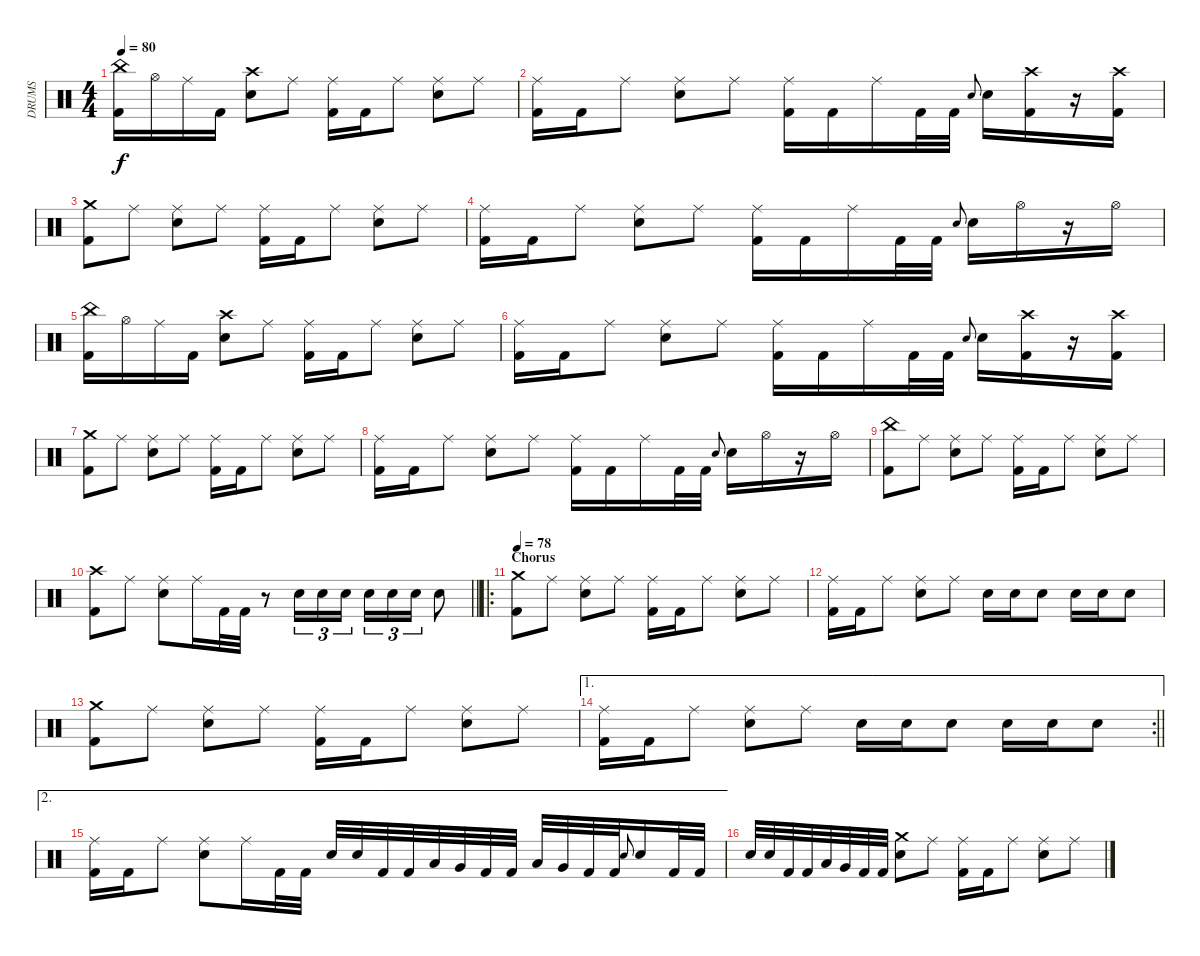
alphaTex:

\track ("DRUMS" "DRUMS") {instrument percussion}
\staff {score}
\articulation defaults
\ts (4 4)
\tempo 80
\clef neutral
\ks c
("China (hit)" "Kick (hit) 2").16{dy f} "Hi-Hat (open)".16 "Ride (middle)".16 "Kick (hit) 2".16 ("Crash high (hit)" "Snare (hit) 2").8 "Ride (middle)".8 ("Ride (middle)" "Kick (hit) 2").16 "Kick (hit) 2".16 "Ride (middle)".8 ("Ride (middle)" "Snare (hit) 2").8 "Ride (middle)".8 |
("Ride (middle)" "Kick (hit) 2").16 "Kick (hit) 2".16 "Ride (middle)".8 ("Ride (middle)" "Snare (hit) 2").8 "Ride (middle)".8 ("Ride (middle)" "Kick (hit) 2").16 "Kick (hit) 2".16 "Ride (middle)".16 "Kick (hit) 2".32 "Kick (hit) 2".32 "Snare (hit) 2".8{gr onbeat} "Snare (hit) 2".16 ("Crash high (hit)" "Kick (hit) 2").16 r.16 ("Crash high (hit)" "Kick (hit) 2").16 |
("Crash medium (hit)" "Kick (hit) 2").8 "Ride (middle)".8 ("Ride (middle)" "Snare (hit) 2").8 "Ride (middle)".8 ("Ride (middle)" "Kick (hit) 2").16 "Kick (hit) 2".16 "Ride (middle)".8 ("Ride (middle)" "Snare (hit) 2").8 "Ride (middle)".8 |
("Ride (middle)" "Kick (hit) 2").16 "Kick (hit) 2".16 "Ride (middle)".8 ("Ride (middle)" "Snare (hit) 2").8 "Ride (middle)".8 ("Ride (middle)" "Kick (hit) 2").16 "Kick (hit) 2".16 "Ride (middle)".16 "Kick (hit) 2".32 "Kick (hit) 2".32 "Snare (hit) 2".8{gr onbeat} "Snare (hit) 2".16 "Hi-Hat (open)".16 r.16 "Hi-Hat (open)".16 |
("China (hit)" "Kick (hit) 2").16 "Hi-Hat (open)".16 "Ride (middle)".16 "Kick (hit) 2".16 ("Crash high (hit)" "Snare (hit) 2").8 "Ride (middle)".8 ("Ride (middle)" "Kick (hit) 2").16 "Kick (hit) 2".16 "Ride (middle)".8 ("Ride (middle)" "Snare (hit) 2").8 "Ride (middle)".8 |
("Ride (middle)" "Kick (hit) 2").16 "Kick (hit) 2".16 "Ride (middle)".8 ("Ride (middle)" "Snare (hit) 2").8 "Ride (middle)".8 ("Ride (middle)" "Kick (hit) 2").16 "Kick (hit) 2".16 "Ride (middle)".16 "Kick (hit) 2".32 "Kick (hit) 2".32 "Snare (hit) 2".8{gr onbeat} "Snare (hit) 2".16 ("Crash high (hit)" "Kick (hit) 2").16 r.16 ("Crash high (hit)" "Kick (hit) 2").16 |
("Crash medium (hit)" "Kick (hit) 2").8 "Ride (middle)".8 ("Ride (middle)" "Snare (hit) 2").8 "Ride (middle)".8 ("Ride (middle)" "Kick (hit) 2").16 "Kick (hit) 2".16 "Ride (middle)".8 ("Ride (middle)" "Snare (hit) 2").8 "Ride (middle)".8 |
("Ride (middle)" "Kick (hit) 2").16 "Kick (hit) 2".16 "Ride (middle)".8 ("Ride (middle)" "Snare (hit) 2").8 "Ride (middle)".8 ("Ride (middle)" "Kick (hit) 2").16 "Kick (hit) 2".16 "Ride (middle)".16 "Kick (hit) 2".32 "Kick (hit) 2".32 "Snare (hit) 2".8{gr onbeat} "Snare (hit) 2".16 "Hi-Hat (open)".16 r.16 "Hi-Hat (open)".16 |
("China (hit)" "Kick (hit) 2").8 "Ride (middle)".8 ("Ride (middle)" "Snare (hit) 2").8 "Ride (middle)".8 ("Ride (middle)" "Kick (hit) 2").16 "Kick (hit) 2".16 "Ride (middle)".8 ("Ride (middle)" "Snare (hit) 2").8 "Ride (middle)".8 |
\barLineRight lightlight
("Crash high (hit)" "Kick (hit) 2").8 "Ride (middle)".8 ("Ride (middle)" "Snare (hit) 2").8 "Ride (middle)".16 "Kick (hit) 2".32 "Kick (hit) 2".32 r.8 "Snare (hit) 2".16{tu (3 2)} "Snare (hit) 2".16{tu (3 2)} "Snare (hit) 2".16{tu (3 2)} "Snare (hit) 2".16{tu (3 2)} "Snare (hit) 2".16{tu (3 2)} "Snare (hit) 2".16{tu (3 2)} "Snare (hit) 2".8 |
\ro
\section ("" "Chorus")
\tempo 78
("Crash medium (hit)" "Kick (hit) 2").8 "Ride (middle)".8 ("Ride (middle)" "Snare (hit) 2").8 "Ride (middle)".8 ("Ride (middle)" "Kick (hit) 2").16 "Kick (hit) 2".16 "Ride (middle)".8 ("Ride (middle)" "Snare (hit) 2").8 "Ride (middle)".8 |
("Ride (middle)" "Kick (hit) 2").16 "Kick (hit) 2".16 "Ride (middle)".8 ("Ride (middle)" "Snare (hit) 2").8 "Ride (middle)".8 "Snare (hit) 2".16 "Snare (hit) 2".16 "Snare (hit) 2".8 "Snare (hit) 2".16 "Snare (hit) 2".16 "Snare (hit) 2".8 |
("Crash medium (hit)" "Kick (hit) 2").8 "Ride (middle)".8 ("Ride (middle)" "Snare (hit) 2").8 "Ride (middle)".8 ("Ride (middle)" "Kick (hit) 2").16 "Kick (hit) 2".16 "Ride (middle)".8 ("Ride (middle)" "Snare (hit) 2").8 "Ride (middle)".8 |
\ae 1
\rc 2
\barLineRight lightlight
("Ride (middle)" "Kick (hit) 2").16 "Kick (hit) 2".16 "Ride (middle)".8 ("Ride (middle)" "Snare (hit) 2").8 "Ride (middle)".8 "Snare (hit) 2".16 "Snare (hit) 2".16 "Snare (hit) 2".8 "Snare (hit) 2".16 "Snare (hit) 2".16 "Snare (hit) 2".8 |
\ae 2
("Ride (middle)" "Kick (hit) 2").16 "Kick (hit) 2".16 "Ride (middle)".8 ("Ride (middle)" "Snare (hit) 2").8 "Ride (middle)".16 "Kick (hit) 2".32 "Kick (hit) 2".32 "Snare (hit) 2".32 "Snare (hit) 2".32 "Kick (hit) 2".32 "Kick (hit) 2".32 "Low Tom (hit)".32 "Very Low Tom (hit)".32 "Kick (hit) 2".32 "Kick (hit) 2".32 "Low Tom (hit)".32 "Very Low Tom (hit)".32 "Kick (hit) 2".32 "Kick (hit) 2".32 "Snare (hit) 2".8{gr onbeat} "Snare (hit) 2".16 "Kick (hit) 2".32 "Kick (hit) 2".32 |
"Snare (hit) 2".32 "Snare (hit) 2".32 "Kick (hit) 2".32 "Kick (hit) 2".32 "Low Tom (hit)".32 "Very Low Tom (hit)".32 "Kick (hit) 2".32 "Kick (hit) 2".32 ("Crash medium (hit)" "Snare (hit) 2").8 "Ride (middle)".8 ("Ride (middle)" "Kick (hit) 2").16 "Kick (hit) 2".16 "Ride (middle)".8 ("Ride (middle)" "Snare (hit) 2").8 "Ride (middle)".8
